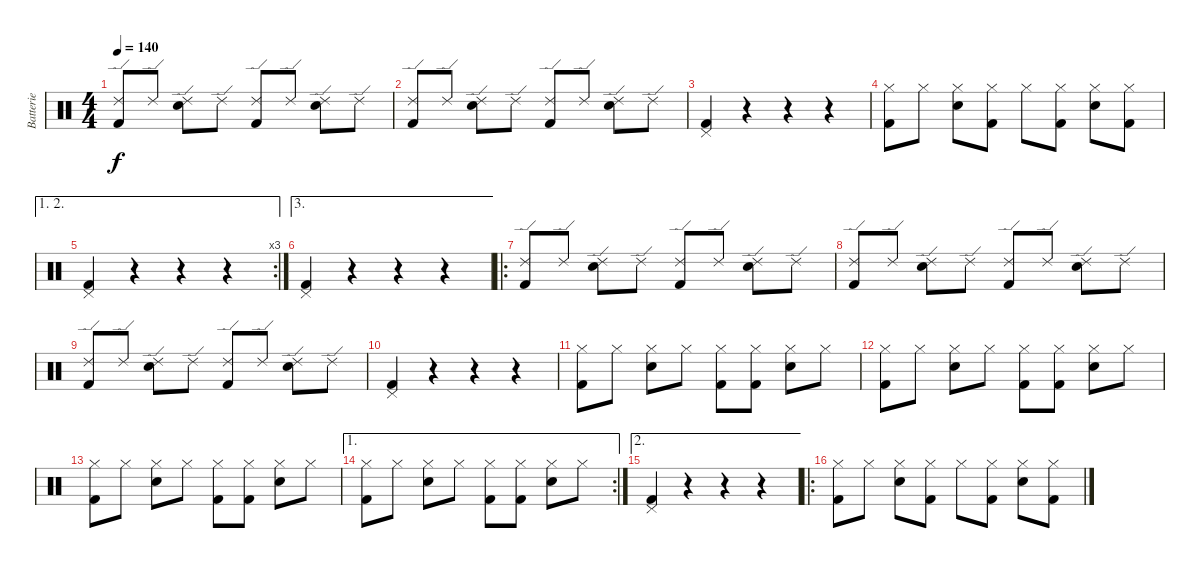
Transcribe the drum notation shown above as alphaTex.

\track ("Batterie" "Batterie") {instrument percussion}
\staff {score}
\articulation defaults
\ts (4 4)
\tempo 140
\clef neutral
\ks c
("Ride (edge) 2" "Kick (hit) 2").8{dy f} "Ride (edge) 2".8 ("Ride (edge) 2" "Snare (hit) 2").8 "Ride (edge) 2".8 ("Ride (edge) 2" "Kick (hit) 2").8 "Ride (edge) 2".8 ("Ride (edge) 2" "Snare (hit) 2").8 "Ride (edge) 2".8 |
("Ride (edge) 2" "Kick (hit) 2").8 "Ride (edge) 2".8 ("Ride (edge) 2" "Snare (hit) 2").8 "Ride (edge) 2".8 ("Ride (edge) 2" "Kick (hit) 2").8 "Ride (edge) 2".8 ("Ride (edge) 2" "Snare (hit) 2").8 "Ride (edge) 2".8 |
("Pedal Hi-Hat (hit)" "Kick (hit) 2").4 r.4 r.4 r.4 |
("Hi-Hat (closed)" "Kick (hit) 2").8 "Hi-Hat (closed)".8 ("Hi-Hat (closed)" "Snare (hit) 2").8 ("Hi-Hat (closed)" "Kick (hit) 2").8 "Hi-Hat (closed)".8 ("Hi-Hat (closed)" "Kick (hit) 2").8 ("Hi-Hat (closed)" "Snare (hit) 2").8 ("Hi-Hat (closed)" "Kick (hit) 2").8 |
\ae (1 2)
\rc 3
("Pedal Hi-Hat (hit)" "Kick (hit) 2").4 r.4 r.4 r.4 |
\ae 3
("Pedal Hi-Hat (hit)" "Kick (hit) 2").4 r.4 r.4 r.4 |
\ro
("Ride (edge) 2" "Kick (hit) 2").8 "Ride (edge) 2".8 ("Ride (edge) 2" "Snare (hit) 2").8 "Ride (edge) 2".8 ("Ride (edge) 2" "Kick (hit) 2").8 "Ride (edge) 2".8 ("Ride (edge) 2" "Snare (hit) 2").8 "Ride (edge) 2".8 |
("Ride (edge) 2" "Kick (hit) 2").8 "Ride (edge) 2".8 ("Ride (edge) 2" "Snare (hit) 2").8 "Ride (edge) 2".8 ("Ride (edge) 2" "Kick (hit) 2").8 "Ride (edge) 2".8 ("Ride (edge) 2" "Snare (hit) 2").8 "Ride (edge) 2".8 |
("Ride (edge) 2" "Kick (hit) 2").8 "Ride (edge) 2".8 ("Ride (edge) 2" "Snare (hit) 2").8 "Ride (edge) 2".8 ("Ride (edge) 2" "Kick (hit) 2").8 "Ride (edge) 2".8 ("Ride (edge) 2" "Snare (hit) 2").8 "Ride (edge) 2".8 |
("Pedal Hi-Hat (hit)" "Kick (hit) 2").4 r.4 r.4 r.4 |
("Hi-Hat (closed)" "Kick (hit) 2").8 "Hi-Hat (closed)".8 ("Hi-Hat (closed)" "Snare (hit) 2").8 "Hi-Hat (closed)".8 ("Hi-Hat (closed)" "Kick (hit) 2").8 ("Hi-Hat (closed)" "Kick (hit) 2").8 ("Hi-Hat (closed)" "Snare (hit) 2").8 "Hi-Hat (closed)".8 |
("Hi-Hat (closed)" "Kick (hit) 2").8 "Hi-Hat (closed)".8 ("Hi-Hat (closed)" "Snare (hit) 2").8 "Hi-Hat (closed)".8 ("Hi-Hat (closed)" "Kick (hit) 2").8 ("Hi-Hat (closed)" "Kick (hit) 2").8 ("Hi-Hat (closed)" "Snare (hit) 2").8 "Hi-Hat (closed)".8 |
("Hi-Hat (closed)" "Kick (hit) 2").8 "Hi-Hat (closed)".8 ("Hi-Hat (closed)" "Snare (hit) 2").8 "Hi-Hat (closed)".8 ("Hi-Hat (closed)" "Kick (hit) 2").8 ("Hi-Hat (closed)" "Kick (hit) 2").8 ("Hi-Hat (closed)" "Snare (hit) 2").8 "Hi-Hat (closed)".8 |
\ae 1
\rc 2
("Hi-Hat (closed)" "Kick (hit) 2").8 "Hi-Hat (closed)".8 ("Hi-Hat (closed)" "Snare (hit) 2").8 "Hi-Hat (closed)".8 ("Hi-Hat (closed)" "Kick (hit) 2").8 ("Hi-Hat (closed)" "Kick (hit) 2").8 ("Hi-Hat (closed)" "Snare (hit) 2").8 "Hi-Hat (closed)".8 |
\ae 2
("Pedal Hi-Hat (hit)" "Kick (hit) 2").4 r.4 r.4 r.4 |
\ro
("Hi-Hat (closed)" "Kick (hit) 2").8 "Hi-Hat (closed)".8 ("Hi-Hat (closed)" "Snare (hit) 2").8 ("Hi-Hat (closed)" "Kick (hit) 2").8 "Hi-Hat (closed)".8 ("Hi-Hat (closed)" "Kick (hit) 2").8 ("Hi-Hat (closed)" "Snare (hit) 2").8 ("Hi-Hat (closed)" "Kick (hit) 2").8
